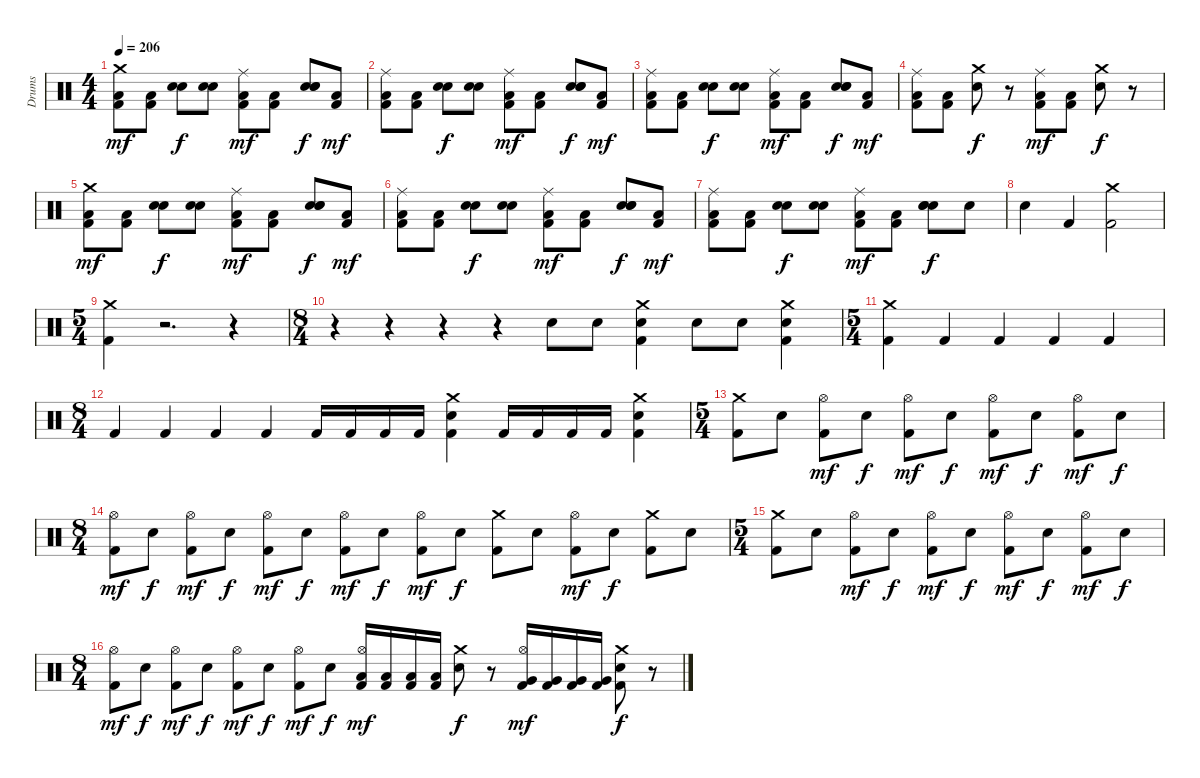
\track ("Drums" "Drums") {instrument percussion}
\staff {score}
\articulation defaults
\ts (4 4)
\tempo 206
\clef neutral
\ks c
("Crash medium (hit)" "Low Floor Tom (hit)" "Kick (hit) 2").8{dy mf} ("Low Floor Tom (hit)" "Kick (hit) 2").8 ("Snare (hit) 2" "Hand Clap (hit)").8{dy f} ("Snare (hit) 2" "Hand Clap (hit)").8 ("Ride (middle)" "Low Floor Tom (hit)" "Kick (hit) 2").8{dy mf} ("Low Floor Tom (hit)" "Kick (hit) 2").8 ("Hand Clap (hit)" "Hand Clap (hit)" "Snare (hit) 2").8{bd 240 dy f} ("Low Floor Tom (hit)" "Kick (hit) 2").8{dy mf} |
("Ride (middle)" "Low Floor Tom (hit)" "Kick (hit) 2").8 ("Low Floor Tom (hit)" "Kick (hit) 2").8 ("Snare (hit) 2" "Hand Clap (hit)").8{dy f} ("Snare (hit) 2" "Hand Clap (hit)").8 ("Ride (middle)" "Low Floor Tom (hit)" "Kick (hit) 2").8{dy mf} ("Low Floor Tom (hit)" "Kick (hit) 2").8 ("Hand Clap (hit)" "Hand Clap (hit)" "Snare (hit) 2").8{bd 240 dy f} ("Low Floor Tom (hit)" "Kick (hit) 2").8{dy mf} |
("Ride (middle)" "Low Floor Tom (hit)" "Kick (hit) 2").8 ("Low Floor Tom (hit)" "Kick (hit) 2").8 ("Snare (hit) 2" "Hand Clap (hit)").8{dy f} ("Snare (hit) 2" "Hand Clap (hit)").8 ("Ride (middle)" "Low Floor Tom (hit)" "Kick (hit) 2").8{dy mf} ("Low Floor Tom (hit)" "Kick (hit) 2").8 ("Hand Clap (hit)" "Hand Clap (hit)" "Snare (hit) 2").8{bd 240 dy f} ("Low Floor Tom (hit)" "Kick (hit) 2").8{dy mf} |
("Ride (middle)" "Low Floor Tom (hit)" "Kick (hit) 2").8 ("Low Floor Tom (hit)" "Kick (hit) 2").8 ("Crash medium (hit)" "Snare (hit) 2").8{dy f} r.8 ("Ride (middle)" "Low Floor Tom (hit)" "Kick (hit) 2").8{dy mf} ("Low Floor Tom (hit)" "Kick (hit) 2").8 ("Crash medium (hit)" "Snare (hit) 2").8{dy f} r.8 |
("Crash medium (hit)" "Low Floor Tom (hit)" "Kick (hit) 2").8{dy mf} ("Low Floor Tom (hit)" "Kick (hit) 2").8 ("Snare (hit) 2" "Hand Clap (hit)").8{dy f} ("Snare (hit) 2" "Hand Clap (hit)").8 ("Ride (middle)" "Low Floor Tom (hit)" "Kick (hit) 2").8{dy mf} ("Low Floor Tom (hit)" "Kick (hit) 2").8 ("Hand Clap (hit)" "Hand Clap (hit)" "Snare (hit) 2").8{bd 240 dy f} ("Low Floor Tom (hit)" "Kick (hit) 2").8{dy mf} |
("Ride (middle)" "Low Floor Tom (hit)" "Kick (hit) 2").8 ("Low Floor Tom (hit)" "Kick (hit) 2").8 ("Snare (hit) 2" "Hand Clap (hit)").8{dy f} ("Snare (hit) 2" "Hand Clap (hit)").8 ("Ride (middle)" "Low Floor Tom (hit)" "Kick (hit) 2").8{dy mf} ("Low Floor Tom (hit)" "Kick (hit) 2").8 ("Hand Clap (hit)" "Hand Clap (hit)" "Snare (hit) 2").8{bd 240 dy f} ("Low Floor Tom (hit)" "Kick (hit) 2").8{dy mf} |
("Ride (middle)" "Low Floor Tom (hit)" "Kick (hit) 2").8 ("Low Floor Tom (hit)" "Kick (hit) 2").8 ("Snare (hit) 2" "Hand Clap (hit)").8{dy f} ("Snare (hit) 2" "Hand Clap (hit)").8 ("Ride (middle)" "Low Floor Tom (hit)" "Kick (hit) 2").8{dy mf} ("Low Floor Tom (hit)" "Kick (hit) 2").8 ("Hand Clap (hit)" "Hand Clap (hit)" "Snare (hit) 2").8{bd 240 dy f} "Snare (hit) 2".8 |
"Snare (hit) 2".4 "Kick (hit) 2".4 ("Crash medium (hit)" "Kick (hit) 2").2 |
\ts (5 4)
("Crash medium (hit)" "Kick (hit) 2").4 r.2{d} r.4 |
\ts (8 4)
r.4 r.4 r.4 r.4 "Snare (hit) 2".8 "Snare (hit) 2".8 ("Crash medium (hit)" "Snare (hit) 2" "Kick (hit) 2").4 "Snare (hit) 2".8 "Snare (hit) 2".8 ("Crash medium (hit)" "Snare (hit) 2" "Kick (hit) 2").4 |
\ts (5 4)
("Crash medium (hit)" "Kick (hit) 2").4 "Kick (hit) 2".4 "Kick (hit) 2".4 "Kick (hit) 2".4 "Kick (hit) 2".4 |
\ts (8 4)
"Kick (hit) 2".4 "Kick (hit) 2".4 "Kick (hit) 2".4 "Kick (hit) 2".4 "Kick (hit) 2".16 "Kick (hit) 2".16 "Kick (hit) 2".16 "Kick (hit) 2".16 ("Crash medium (hit)" "Snare (hit) 2" "Kick (hit) 2").4 "Kick (hit) 2".16 "Kick (hit) 2".16 "Kick (hit) 2".16 "Kick (hit) 2".16 ("Crash medium (hit)" "Snare (hit) 2" "Kick (hit) 2").4 |
\ts (5 4)
("Crash medium (hit)" "Kick (hit) 2").8 "Snare (hit) 2".8 ("Hi-Hat (open)" "Kick (hit) 2").8{dy mf} "Snare (hit) 2".8{dy f} ("Hi-Hat (open)" "Kick (hit) 2").8{dy mf} "Snare (hit) 2".8{dy f} ("Hi-Hat (open)" "Kick (hit) 2").8{dy mf} "Snare (hit) 2".8{dy f} ("Hi-Hat (open)" "Kick (hit) 2").8{dy mf} "Snare (hit) 2".8{dy f} |
\ts (8 4)
("Hi-Hat (open)" "Kick (hit) 2").8{dy mf} "Snare (hit) 2".8{dy f} ("Hi-Hat (open)" "Kick (hit) 2").8{dy mf} "Snare (hit) 2".8{dy f} ("Hi-Hat (open)" "Kick (hit) 2").8{dy mf} "Snare (hit) 2".8{dy f} ("Hi-Hat (open)" "Kick (hit) 2").8{dy mf} "Snare (hit) 2".8{dy f} ("Hi-Hat (open)" "Kick (hit) 2").8{dy mf} "Snare (hit) 2".8{dy f} ("Crash medium (hit)" "Kick (hit) 2").8 "Snare (hit) 2".8 ("Hi-Hat (open)" "Kick (hit) 2").8{dy mf} "Snare (hit) 2".8{dy f} ("Crash medium (hit)" "Kick (hit) 2").8 "Snare (hit) 2".8 |
\ts (5 4)
("Crash medium (hit)" "Kick (hit) 2").8 "Snare (hit) 2".8 ("Hi-Hat (open)" "Kick (hit) 2").8{dy mf} "Snare (hit) 2".8{dy f} ("Hi-Hat (open)" "Kick (hit) 2").8{dy mf} "Snare (hit) 2".8{dy f} ("Hi-Hat (open)" "Kick (hit) 2").8{dy mf} "Snare (hit) 2".8{dy f} ("Hi-Hat (open)" "Kick (hit) 2").8{dy mf} "Snare (hit) 2".8{dy f} |
\ts (8 4)
("Hi-Hat (open)" "Kick (hit) 2").8{dy mf} "Snare (hit) 2".8{dy f} ("Hi-Hat (open)" "Kick (hit) 2").8{dy mf} "Snare (hit) 2".8{dy f} ("Hi-Hat (open)" "Kick (hit) 2").8{dy mf} "Snare (hit) 2".8{dy f} ("Hi-Hat (open)" "Kick (hit) 2").8{dy mf} "Snare (hit) 2".8{dy f} ("Hi-Hat (open)" "Low Tom (hit)" "Kick (hit) 2").16{dy mf} ("Low Tom (hit)" "Kick (hit) 2").16 ("Low Tom (hit)" "Kick (hit) 2").16 ("Low Tom (hit)" "Kick (hit) 2").16 ("Crash medium (hit)" "Snare (hit) 2").8{dy f} r.8 ("Hi-Hat (open)" "Very Low Tom (hit)" "Kick (hit) 2").16{dy mf} ("Very Low Tom (hit)" "Kick (hit) 2").16 ("Very Low Tom (hit)" "Kick (hit) 2").16 ("Very Low Tom (hit)" "Kick (hit) 2").16 ("Crash medium (hit)" "Snare (hit) 2" "Kick (hit) 2").8{dy f} r.8
